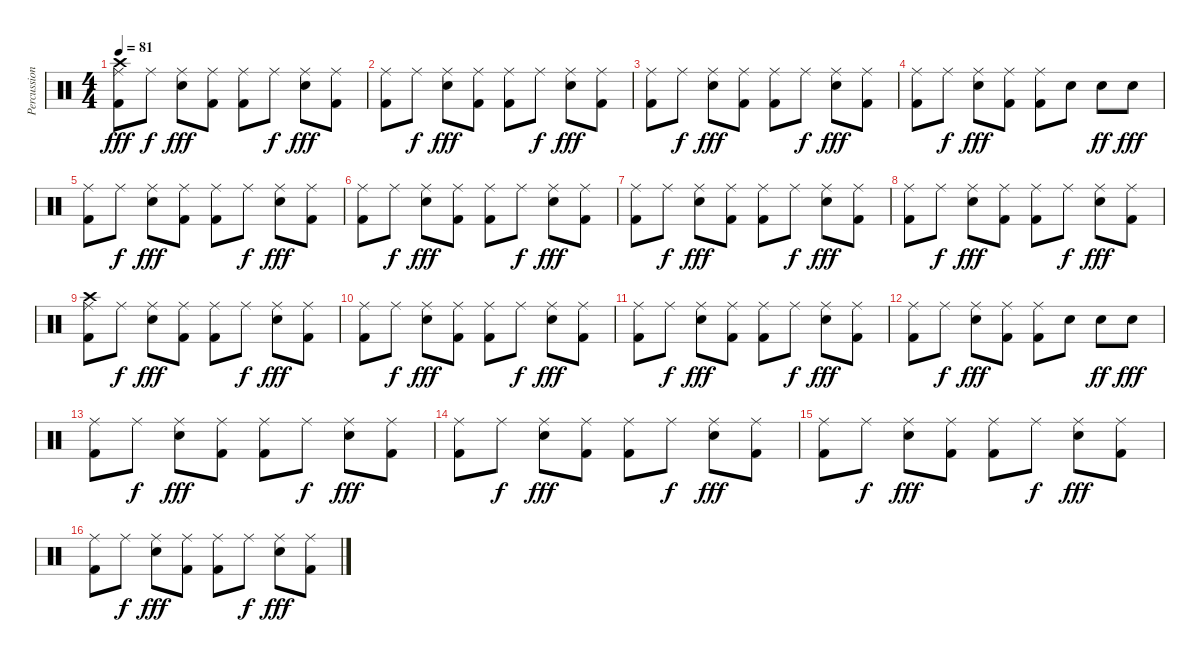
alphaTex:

\track ("Percussion" "Percussion") {instrument percussion}
\staff {score}
\articulation defaults
\ts (4 4)
\tempo 81
\clef neutral
\ks c
("Crash high (hit)" "Ride (middle)" "Kick (hit) 2").8{dy fff} "Ride (middle)".8{dy f} ("Ride (middle)" "Snare (hit) 2").8{dy fff} ("Ride (middle)" "Kick (hit) 2").8 ("Ride (middle)" "Kick (hit) 2").8 "Ride (middle)".8{dy f} ("Ride (middle)" "Snare (hit) 2").8{dy fff} ("Ride (middle)" "Kick (hit) 2").8 |
("Ride (middle)" "Kick (hit) 2").8 "Ride (middle)".8{dy f} ("Ride (middle)" "Snare (hit) 2").8{dy fff} ("Ride (middle)" "Kick (hit) 2").8 ("Ride (middle)" "Kick (hit) 2").8 "Ride (middle)".8{dy f} ("Ride (middle)" "Snare (hit) 2").8{dy fff} ("Ride (middle)" "Kick (hit) 2").8 |
("Ride (middle)" "Kick (hit) 2").8 "Ride (middle)".8{dy f} ("Ride (middle)" "Snare (hit) 2").8{dy fff} ("Ride (middle)" "Kick (hit) 2").8 ("Ride (middle)" "Kick (hit) 2").8 "Ride (middle)".8{dy f} ("Ride (middle)" "Snare (hit) 2").8{dy fff} ("Ride (middle)" "Kick (hit) 2").8 |
("Ride (middle)" "Kick (hit) 2").8 "Ride (middle)".8{dy f} ("Ride (middle)" "Snare (hit) 2").8{dy fff} ("Ride (middle)" "Kick (hit) 2").8 ("Ride (middle)" "Kick (hit) 2").8 "Snare (hit) 2".8 "Snare (hit) 2".8{dy ff} "Snare (hit) 2".8{dy fff} |
("Ride (middle)" "Kick (hit) 2").8 "Ride (middle)".8{dy f} ("Ride (middle)" "Snare (hit) 2").8{dy fff} ("Ride (middle)" "Kick (hit) 2").8 ("Ride (middle)" "Kick (hit) 2").8 "Ride (middle)".8{dy f} ("Ride (middle)" "Snare (hit) 2").8{dy fff} ("Ride (middle)" "Kick (hit) 2").8 |
("Ride (middle)" "Kick (hit) 2").8 "Ride (middle)".8{dy f} ("Ride (middle)" "Snare (hit) 2").8{dy fff} ("Ride (middle)" "Kick (hit) 2").8 ("Ride (middle)" "Kick (hit) 2").8 "Ride (middle)".8{dy f} ("Ride (middle)" "Snare (hit) 2").8{dy fff} ("Ride (middle)" "Kick (hit) 2").8 |
("Ride (middle)" "Kick (hit) 2").8 "Ride (middle)".8{dy f} ("Ride (middle)" "Snare (hit) 2").8{dy fff} ("Ride (middle)" "Kick (hit) 2").8 ("Ride (middle)" "Kick (hit) 2").8 "Ride (middle)".8{dy f} ("Ride (middle)" "Snare (hit) 2").8{dy fff} ("Ride (middle)" "Kick (hit) 2").8 |
("Ride (middle)" "Kick (hit) 2").8 "Ride (middle)".8{dy f} ("Ride (middle)" "Snare (hit) 2").8{dy fff} ("Ride (middle)" "Kick (hit) 2").8 ("Ride (middle)" "Kick (hit) 2").8 "Ride (middle)".8{dy f} ("Ride (middle)" "Snare (hit) 2").8{dy fff} ("Ride (middle)" "Kick (hit) 2").8 |
("Crash high (hit)" "Ride (middle)" "Kick (hit) 2").8 "Ride (middle)".8{dy f} ("Ride (middle)" "Snare (hit) 2").8{dy fff} ("Ride (middle)" "Kick (hit) 2").8 ("Ride (middle)" "Kick (hit) 2").8 "Ride (middle)".8{dy f} ("Ride (middle)" "Snare (hit) 2").8{dy fff} ("Ride (middle)" "Kick (hit) 2").8 |
("Ride (middle)" "Kick (hit) 2").8 "Ride (middle)".8{dy f} ("Ride (middle)" "Snare (hit) 2").8{dy fff} ("Ride (middle)" "Kick (hit) 2").8 ("Ride (middle)" "Kick (hit) 2").8 "Ride (middle)".8{dy f} ("Ride (middle)" "Snare (hit) 2").8{dy fff} ("Ride (middle)" "Kick (hit) 2").8 |
("Ride (middle)" "Kick (hit) 2").8 "Ride (middle)".8{dy f} ("Ride (middle)" "Snare (hit) 2").8{dy fff} ("Ride (middle)" "Kick (hit) 2").8 ("Ride (middle)" "Kick (hit) 2").8 "Ride (middle)".8{dy f} ("Ride (middle)" "Snare (hit) 2").8{dy fff} ("Ride (middle)" "Kick (hit) 2").8 |
("Ride (middle)" "Kick (hit) 2").8 "Ride (middle)".8{dy f} ("Ride (middle)" "Snare (hit) 2").8{dy fff} ("Ride (middle)" "Kick (hit) 2").8 ("Ride (middle)" "Kick (hit) 2").8 "Snare (hit) 2".8 "Snare (hit) 2".8{dy ff} "Snare (hit) 2".8{dy fff} |
("Ride (middle)" "Kick (hit) 2").8 "Ride (middle)".8{dy f} ("Ride (middle)" "Snare (hit) 2").8{dy fff} ("Ride (middle)" "Kick (hit) 2").8 ("Ride (middle)" "Kick (hit) 2").8 "Ride (middle)".8{dy f} ("Ride (middle)" "Snare (hit) 2").8{dy fff} ("Ride (middle)" "Kick (hit) 2").8 |
("Ride (middle)" "Kick (hit) 2").8 "Ride (middle)".8{dy f} ("Ride (middle)" "Snare (hit) 2").8{dy fff} ("Ride (middle)" "Kick (hit) 2").8 ("Ride (middle)" "Kick (hit) 2").8 "Ride (middle)".8{dy f} ("Ride (middle)" "Snare (hit) 2").8{dy fff} ("Ride (middle)" "Kick (hit) 2").8 |
("Ride (middle)" "Kick (hit) 2").8 "Ride (middle)".8{dy f} ("Ride (middle)" "Snare (hit) 2").8{dy fff} ("Ride (middle)" "Kick (hit) 2").8 ("Ride (middle)" "Kick (hit) 2").8 "Ride (middle)".8{dy f} ("Ride (middle)" "Snare (hit) 2").8{dy fff} ("Ride (middle)" "Kick (hit) 2").8 |
("Ride (middle)" "Kick (hit) 2").8 "Ride (middle)".8{dy f} ("Ride (middle)" "Snare (hit) 2").8{dy fff} ("Ride (middle)" "Kick (hit) 2").8 ("Ride (middle)" "Kick (hit) 2").8 "Ride (middle)".8{dy f} ("Ride (middle)" "Snare (hit) 2").8{dy fff} ("Ride (middle)" "Kick (hit) 2").8
